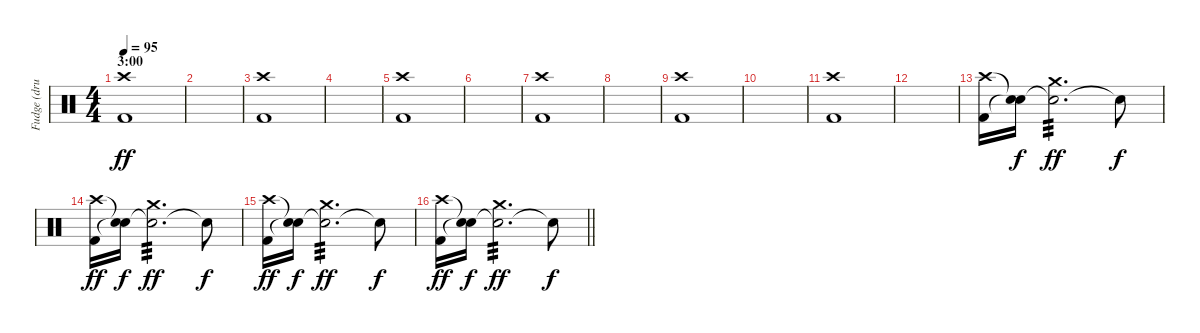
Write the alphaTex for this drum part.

\track ("Fudge (drums)" "Fudge (dru") {instrument percussion}
\staff {score}
\articulation defaults
\ts (4 4)
\section ("" "3:00")
\tempo 95
\clef neutral
\ks c
("Kick (hit) 2" "Crash high (hit)").1{dy ff} |
|
("Kick (hit) 2" "Crash high (hit)").1 |
|
("Kick (hit) 2" "Crash high (hit)").1 |
|
("Kick (hit) 2" "Crash high (hit)").1 |
|
("Kick (hit) 2" "Crash high (hit)").1 |
|
("Kick (hit) 2" "Crash high (hit)").1 |
|
("Kick (hit) 2" "Crash high (hit)").16 ("Snare (hit)"{t} "Snare (hit)"{t}).16{dy f volume 6} ("Snare (hit)"{t} "Crash medium (hit)").2{d tp 3 dy ff volume 13} "Snare (hit)"{t}.8{dy f} |
("Kick (hit) 2" "Crash high (hit)").16{dy ff} ("Snare (hit)"{t} "Snare (hit)"{t}).16{dy f volume 6} ("Snare (hit)"{t} "Crash medium (hit)").2{d tp 3 dy ff volume 13} "Snare (hit)"{t}.8{dy f} |
("Kick (hit) 2" "Crash high (hit)").16{dy ff} ("Snare (hit)"{t} "Snare (hit)"{t}).16{dy f volume 6} ("Snare (hit)"{t} "Crash medium (hit)").2{d tp 3 dy ff volume 13} "Snare (hit)"{t}.8{dy f} |
\barLineRight lightlight
("Kick (hit) 2" "Crash high (hit)").16{dy ff} ("Snare (hit)"{t} "Snare (hit)"{t}).16{dy f volume 6} ("Snare (hit)"{t} "Crash medium (hit)").2{d tp 3 dy ff volume 13} "Snare (hit)"{t}.8{dy f}
